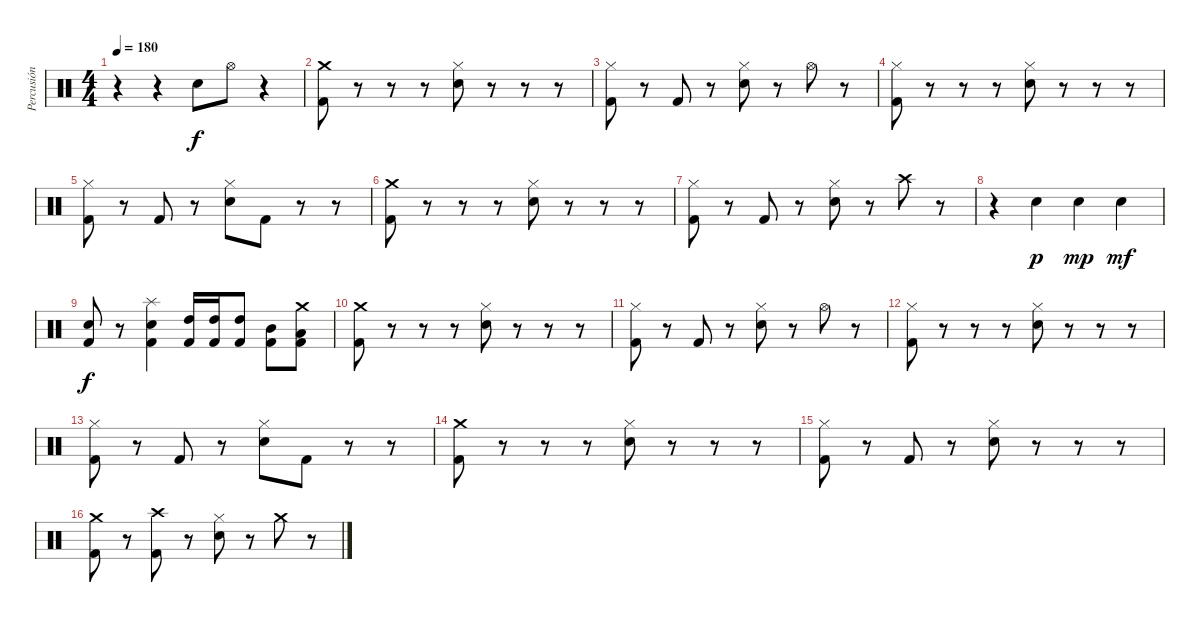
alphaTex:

\track ("Percusión" "Percusión") {instrument percussion}
\staff {score}
\articulation defaults
\ts (4 4)
\tempo 180
\clef neutral
\ks c
r.4{dy f} r.4 "Snare (hit) 2".8 "Hi-Hat (open)".8 r.4 |
("Crash medium (hit)" "Kick (hit) 2").8 r.8 r.8 r.8 ("Hi-Hat (closed)" "Snare (hit) 2").8 r.8 r.8 r.8 |
("Hi-Hat (closed)" "Kick (hit) 2").8 r.8 "Kick (hit) 2".8 r.8 ("Hi-Hat (closed)" "Snare (hit) 2").8 r.8 "Hi-Hat (open)".8 r.8 |
("Hi-Hat (closed)" "Kick (hit) 2").8 r.8 r.8 r.8 ("Hi-Hat (closed)" "Snare (hit) 2").8 r.8 r.8 r.8 |
("Hi-Hat (closed)" "Kick (hit) 2").8 r.8 "Kick (hit) 2".8 r.8 ("Hi-Hat (closed)" "Snare (hit) 2").8 "Kick (hit) 2".8 r.8 r.8 |
("Crash medium (hit)" "Kick (hit) 2").8 r.8 r.8 r.8 ("Hi-Hat (closed)" "Snare (hit) 2").8 r.8 r.8 r.8 |
("Hi-Hat (closed)" "Kick (hit) 2").8 r.8 "Kick (hit) 2".8 r.8 ("Hi-Hat (closed)" "Snare (hit) 2").8 r.8 "Crash high (hit)".8 r.8 |
r.4 "Snare (hit) 2".4{dy p} "Snare (hit) 2".4{dy mp} "Snare (hit) 2".4{dy mf} |
("Snare (hit) 2" "Kick (hit) 2").8{dy f} r.8 ("Splash (hit)" "Snare (hit) 2" "Kick (hit) 2").4 ("High Tom (hit)" "Kick (hit) 2").16 ("High Tom (hit)" "Kick (hit) 2").16 ("High Tom (hit)" "Kick (hit) 2").8 ("Mid Tom (hit)" "Kick (hit) 2").8 ("Crash medium (hit)" "Low Tom (hit)" "Kick (hit) 2").8 |
("Crash medium (hit)" "Kick (hit) 2").8 r.8 r.8 r.8 ("Hi-Hat (closed)" "Snare (hit) 2").8 r.8 r.8 r.8 |
("Hi-Hat (closed)" "Kick (hit) 2").8 r.8 "Kick (hit) 2".8 r.8 ("Hi-Hat (closed)" "Snare (hit) 2").8 r.8 "Hi-Hat (open)".8 r.8 |
("Hi-Hat (closed)" "Kick (hit) 2").8 r.8 r.8 r.8 ("Hi-Hat (closed)" "Snare (hit) 2").8 r.8 r.8 r.8 |
("Hi-Hat (closed)" "Kick (hit) 2").8 r.8 "Kick (hit) 2".8 r.8 ("Hi-Hat (closed)" "Snare (hit) 2").8 "Kick (hit) 2".8 r.8 r.8 |
("Crash medium (hit)" "Kick (hit) 2").8 r.8 r.8 r.8 ("Hi-Hat (closed)" "Snare (hit) 2").8 r.8 r.8 r.8 |
("Hi-Hat (closed)" "Kick (hit) 2").8 r.8 "Kick (hit) 2".8 r.8 ("Hi-Hat (closed)" "Snare (hit) 2").8 r.8 r.8 r.8 |
("Crash medium (hit)" "Kick (hit) 2").8 r.8 ("Crash high (hit)" "Kick (hit) 2").8 r.8 ("Hi-Hat (closed)" "Snare (hit) 2").8 r.8 "Crash medium (hit)".8 r.8
